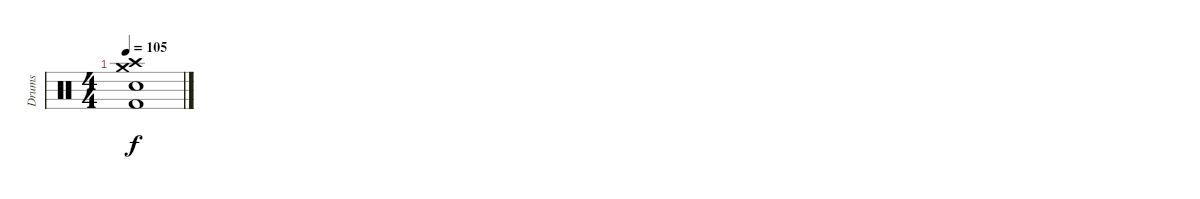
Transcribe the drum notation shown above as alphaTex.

\track ("Drums" "Drums") {instrument percussion}
\staff {score}
\articulation defaults
\ts (4 4)
\tempo 105
\clef neutral
\ks c
("Crash medium (hit)" "Crash high (hit)" "Electric Snare (hit)" "Kick (hit) 2").1{dy f}
